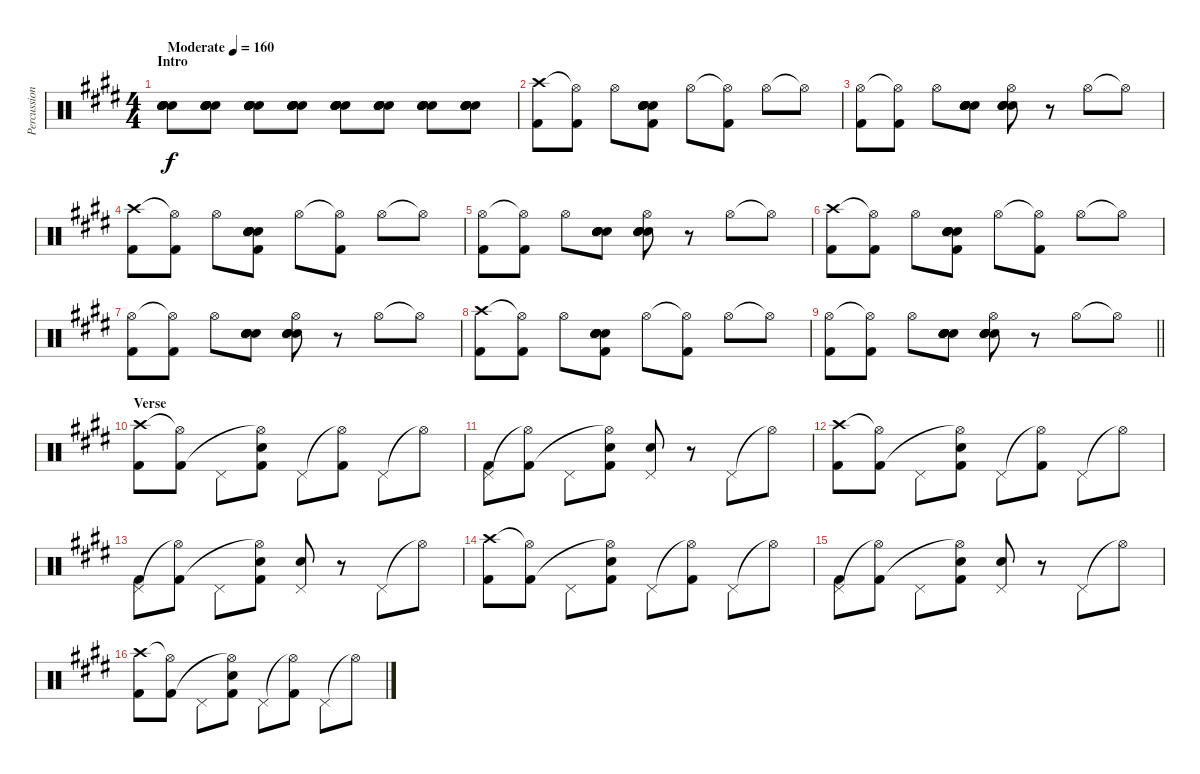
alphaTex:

\track ("Percussion" "Percussion") {instrument percussion}
\staff {score}
\articulation defaults
\ts (4 4)
\section ("" "Intro")
\tempo (160 "Moderate")
\clef neutral
\ks c#minor
("Electric Snare (hit)" "Electric Snare (hit)" "Electric Snare (hit)" "Electric Snare (hit)" "Electric Snare (hit)" "Electric Snare (hit)").8{dy f} ("Electric Snare (hit)" "Electric Snare (hit)" "Electric Snare (hit)" "Electric Snare (hit)" "Electric Snare (hit)" "Electric Snare (hit)").8 ("Electric Snare (hit)" "Electric Snare (hit)" "Electric Snare (hit)" "Electric Snare (hit)" "Electric Snare (hit)" "Electric Snare (hit)").8 ("Electric Snare (hit)" "Electric Snare (hit)" "Electric Snare (hit)" "Electric Snare (hit)" "Electric Snare (hit)" "Electric Snare (hit)").8 ("Electric Snare (hit)" "Electric Snare (hit)" "Electric Snare (hit)" "Electric Snare (hit)" "Electric Snare (hit)" "Electric Snare (hit)").8 ("Electric Snare (hit)" "Electric Snare (hit)" "Electric Snare (hit)" "Electric Snare (hit)" "Electric Snare (hit)" "Electric Snare (hit)").8 ("Electric Snare (hit)" "Electric Snare (hit)" "Electric Snare (hit)" "Electric Snare (hit)" "Electric Snare (hit)" "Electric Snare (hit)").8 ("Electric Snare (hit)" "Electric Snare (hit)" "Electric Snare (hit)" "Electric Snare (hit)" "Electric Snare (hit)" "Electric Snare (hit)").8 |
("Crash high (hit)" "Kick (hit) 2").8 ("Hi-Hat (open)"{t} "Kick (hit) 2").8 "Hi-Hat (open)".8 ("Electric Snare (hit)" "Electric Snare (hit)" "Electric Snare (hit)" "Electric Snare (hit)" "Electric Snare (hit)" "Kick (hit) 2").8 "Hi-Hat (open)".8 ("Hi-Hat (open)"{t} "Kick (hit) 2").8 "Hi-Hat (open)".8 "Hi-Hat (open)"{t}.8 |
("Hi-Hat (open)" "Kick (hit) 2").8 ("Hi-Hat (open)"{t} "Kick (hit) 2").8 "Hi-Hat (open)".8 ("Electric Snare (hit)" "Electric Snare (hit)" "Electric Snare (hit)" "Electric Snare (hit)" "Electric Snare (hit)").8 ("Electric Snare (hit)" "Electric Snare (hit)" "Hi-Hat (open)" "Electric Snare (hit)" "Electric Snare (hit)").8 r.8 "Hi-Hat (open)".8 "Hi-Hat (open)"{t}.8 |
("Crash high (hit)" "Kick (hit) 2").8 ("Hi-Hat (open)"{t} "Kick (hit) 2").8 "Hi-Hat (open)".8 ("Electric Snare (hit)" "Electric Snare (hit)" "Electric Snare (hit)" "Electric Snare (hit)" "Electric Snare (hit)" "Kick (hit) 2").8 "Hi-Hat (open)".8 ("Hi-Hat (open)"{t} "Kick (hit) 2").8 "Hi-Hat (open)".8 "Hi-Hat (open)"{t}.8 |
("Hi-Hat (open)" "Kick (hit) 2").8 ("Hi-Hat (open)"{t} "Kick (hit) 2").8 "Hi-Hat (open)".8 ("Electric Snare (hit)" "Electric Snare (hit)" "Electric Snare (hit)" "Electric Snare (hit)" "Electric Snare (hit)").8 ("Electric Snare (hit)" "Electric Snare (hit)" "Hi-Hat (open)" "Electric Snare (hit)" "Electric Snare (hit)").8 r.8 "Hi-Hat (open)".8 "Hi-Hat (open)"{t}.8 |
("Crash high (hit)" "Kick (hit) 2").8 ("Hi-Hat (open)"{t} "Kick (hit) 2").8 "Hi-Hat (open)".8 ("Electric Snare (hit)" "Electric Snare (hit)" "Electric Snare (hit)" "Electric Snare (hit)" "Electric Snare (hit)" "Kick (hit) 2").8 "Hi-Hat (open)".8 ("Hi-Hat (open)"{t} "Kick (hit) 2").8 "Hi-Hat (open)".8 "Hi-Hat (open)"{t}.8 |
("Hi-Hat (open)" "Kick (hit) 2").8 ("Hi-Hat (open)"{t} "Kick (hit) 2").8 "Hi-Hat (open)".8 ("Electric Snare (hit)" "Electric Snare (hit)" "Electric Snare (hit)" "Electric Snare (hit)" "Electric Snare (hit)").8 ("Electric Snare (hit)" "Electric Snare (hit)" "Hi-Hat (open)" "Electric Snare (hit)" "Electric Snare (hit)").8 r.8 "Hi-Hat (open)".8 "Hi-Hat (open)"{t}.8 |
("Crash high (hit)" "Kick (hit) 2").8 ("Hi-Hat (open)"{t} "Kick (hit) 2").8 "Hi-Hat (open)".8 ("Electric Snare (hit)" "Electric Snare (hit)" "Electric Snare (hit)" "Electric Snare (hit)" "Electric Snare (hit)" "Kick (hit) 2").8 "Hi-Hat (open)".8 ("Hi-Hat (open)"{t} "Kick (hit) 2").8 "Hi-Hat (open)".8 "Hi-Hat (open)"{t}.8 |
\barLineRight lightlight
("Hi-Hat (open)" "Kick (hit) 2").8 ("Hi-Hat (open)"{t} "Kick (hit) 2").8 "Hi-Hat (open)".8 ("Electric Snare (hit)" "Electric Snare (hit)" "Electric Snare (hit)" "Electric Snare (hit)" "Electric Snare (hit)").8 ("Electric Snare (hit)" "Electric Snare (hit)" "Hi-Hat (open)" "Electric Snare (hit)" "Electric Snare (hit)").8 r.8 "Hi-Hat (open)".8 "Hi-Hat (open)"{t}.8 |
\section ("" "Verse")
("Crash high (hit)" "Kick (hit) 2").8 ("Hi-Hat (open)"{t} "Kick (hit) 2").8 "Pedal Hi-Hat (hit)".8 ("Electric Snare (hit)" "Hi-Hat (open)"{t} "Kick (hit) 2").8 "Pedal Hi-Hat (hit)".8 ("Hi-Hat (open)"{t} "Kick (hit) 2").8 "Pedal Hi-Hat (hit)".8 "Hi-Hat (open)"{t}.8 |
("Pedal Hi-Hat (hit)" "Kick (hit) 2").8 ("Hi-Hat (open)"{t} "Kick (hit) 2").8 "Pedal Hi-Hat (hit)".8 ("Electric Snare (hit)" "Hi-Hat (open)"{t} "Kick (hit) 2").8 ("Electric Snare (hit)" "Pedal Hi-Hat (hit)").8 r.8 "Pedal Hi-Hat (hit)".8 "Hi-Hat (open)"{t}.8 |
("Crash high (hit)" "Kick (hit) 2").8 ("Hi-Hat (open)"{t} "Kick (hit) 2").8 "Pedal Hi-Hat (hit)".8 ("Electric Snare (hit)" "Hi-Hat (open)"{t} "Kick (hit) 2").8 "Pedal Hi-Hat (hit)".8 ("Hi-Hat (open)"{t} "Kick (hit) 2").8 "Pedal Hi-Hat (hit)".8 "Hi-Hat (open)"{t}.8 |
("Pedal Hi-Hat (hit)" "Kick (hit) 2").8 ("Hi-Hat (open)"{t} "Kick (hit) 2").8 "Pedal Hi-Hat (hit)".8 ("Electric Snare (hit)" "Hi-Hat (open)"{t} "Kick (hit) 2").8 ("Electric Snare (hit)" "Pedal Hi-Hat (hit)").8 r.8 "Pedal Hi-Hat (hit)".8 "Hi-Hat (open)"{t}.8 |
("Crash high (hit)" "Kick (hit) 2").8 ("Hi-Hat (open)"{t} "Kick (hit) 2").8 "Pedal Hi-Hat (hit)".8 ("Electric Snare (hit)" "Hi-Hat (open)"{t} "Kick (hit) 2").8 "Pedal Hi-Hat (hit)".8 ("Hi-Hat (open)"{t} "Kick (hit) 2").8 "Pedal Hi-Hat (hit)".8 "Hi-Hat (open)"{t}.8 |
("Pedal Hi-Hat (hit)" "Kick (hit) 2").8 ("Hi-Hat (open)"{t} "Kick (hit) 2").8 "Pedal Hi-Hat (hit)".8 ("Electric Snare (hit)" "Hi-Hat (open)"{t} "Kick (hit) 2").8 ("Electric Snare (hit)" "Pedal Hi-Hat (hit)").8 r.8 "Pedal Hi-Hat (hit)".8 "Hi-Hat (open)"{t}.8 |
("Crash high (hit)" "Kick (hit) 2").8 ("Hi-Hat (open)"{t} "Kick (hit) 2").8 "Pedal Hi-Hat (hit)".8 ("Electric Snare (hit)" "Hi-Hat (open)"{t} "Kick (hit) 2").8 "Pedal Hi-Hat (hit)".8 ("Hi-Hat (open)"{t} "Kick (hit) 2").8 "Pedal Hi-Hat (hit)".8 "Hi-Hat (open)"{t}.8
